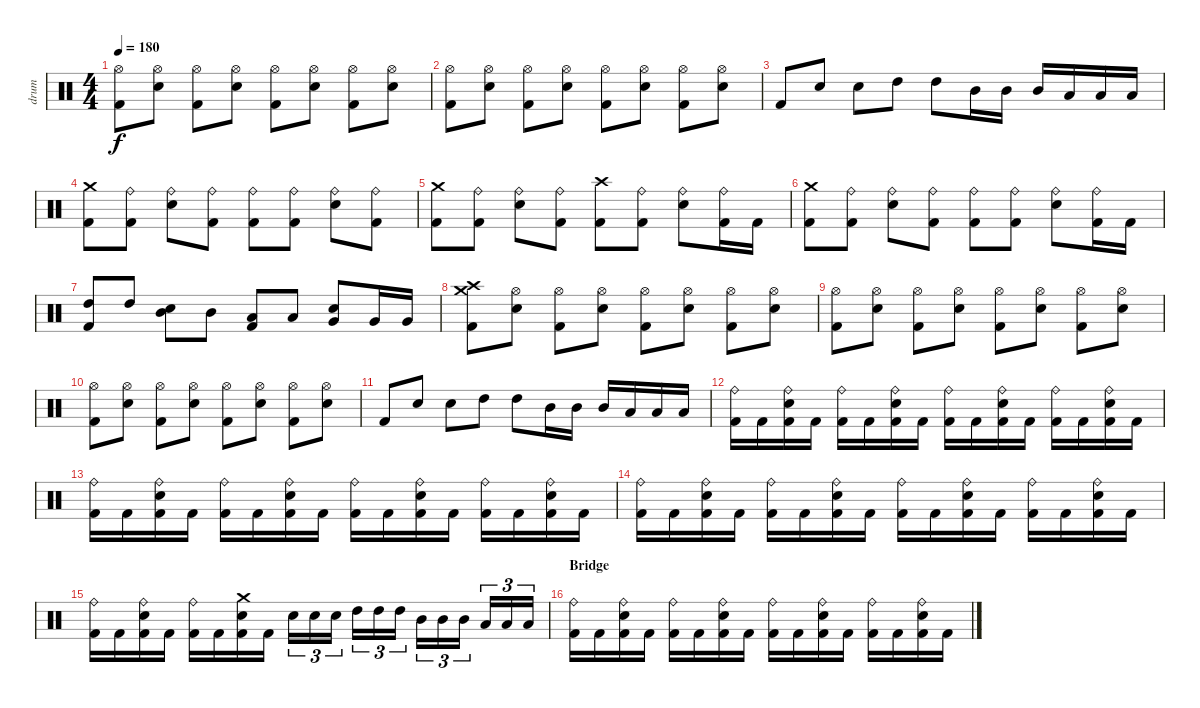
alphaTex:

\track ("drum" "drum") {instrument percussion}
\staff {score}
\articulation defaults
\ts (4 4)
\tempo 180
\clef neutral
\ks c
("Hi-Hat (open)" "Kick (hit) 2").8{dy f} ("Hi-Hat (open)" "Electric Snare (hit)").8 ("Hi-Hat (open)" "Kick (hit) 2").8 ("Hi-Hat (open)" "Electric Snare (hit)").8 ("Hi-Hat (open)" "Kick (hit) 2").8 ("Hi-Hat (open)" "Electric Snare (hit)").8 ("Hi-Hat (open)" "Kick (hit) 2").8 ("Hi-Hat (open)" "Electric Snare (hit)").8 |
("Hi-Hat (open)" "Kick (hit) 2").8 ("Hi-Hat (open)" "Electric Snare (hit)").8 ("Hi-Hat (open)" "Kick (hit) 2").8 ("Hi-Hat (open)" "Electric Snare (hit)").8 ("Hi-Hat (open)" "Kick (hit) 2").8 ("Hi-Hat (open)" "Electric Snare (hit)").8 ("Hi-Hat (open)" "Kick (hit) 2").8 ("Hi-Hat (open)" "Electric Snare (hit)").8 |
"Kick (hit) 2".8 "Electric Snare (hit)".8 "Electric Snare (hit)".8 "High Tom (hit)".8 "High Tom (hit)".8 "Mid Tom (hit)".16 "Mid Tom (hit)".16 "Mid Tom (hit)".16 "Low Tom (hit)".16 "Low Tom (hit)".16 "Low Tom (hit)".16 |
("Crash medium (hit)" "Kick (hit) 2").8 ("Ride (bell)" "Kick (hit) 2").8 ("Ride (bell)" "Electric Snare (hit)").8 ("Ride (bell)" "Kick (hit) 2").8 ("Ride (bell)" "Kick (hit) 2").8 ("Ride (bell)" "Kick (hit) 2").8 ("Ride (bell)" "Electric Snare (hit)").8 ("Ride (bell)" "Kick (hit) 2").8 |
("Crash medium (hit)" "Kick (hit) 2").8 ("Ride (bell)" "Kick (hit) 2").8 ("Ride (bell)" "Electric Snare (hit)").8 ("Ride (bell)" "Kick (hit) 2").8 ("Crash high (hit)" "Kick (hit) 2").8 ("Ride (bell)" "Kick (hit) 2").8 ("Ride (bell)" "Electric Snare (hit)").8 ("Ride (bell)" "Kick (hit) 2").16 "Kick (hit) 2".16 |
("Crash medium (hit)" "Kick (hit) 2").8 ("Ride (bell)" "Kick (hit) 2").8 ("Ride (bell)" "Electric Snare (hit)").8 ("Ride (bell)" "Kick (hit) 2").8 ("Ride (bell)" "Kick (hit) 2").8 ("Ride (bell)" "Kick (hit) 2").8 ("Ride (bell)" "Electric Snare (hit)").8 ("Ride (bell)" "Kick (hit) 2").16 "Kick (hit) 2".16 |
("High Tom (hit)" "Kick (hit) 2").8 "High Tom (hit)".8 ("Mid Tom (hit)" "Electric Snare (hit)").8 "Mid Tom (hit)".8 ("Low Tom (hit)" "Kick (hit) 2").8 "Low Tom (hit)".8 ("Very Low Tom (hit)" "Electric Snare (hit)").8 "Very Low Tom (hit)".16 "Very Low Tom (hit)".16 |
("Crash high (hit)" "Crash medium (hit)" "Kick (hit) 2").8 ("Hi-Hat (open)" "Electric Snare (hit)").8 ("Hi-Hat (open)" "Kick (hit) 2").8 ("Hi-Hat (open)" "Electric Snare (hit)").8 ("Hi-Hat (open)" "Kick (hit) 2").8 ("Hi-Hat (open)" "Electric Snare (hit)").8 ("Hi-Hat (open)" "Kick (hit) 2").8 ("Hi-Hat (open)" "Electric Snare (hit)").8 |
("Hi-Hat (open)" "Kick (hit) 2").8 ("Hi-Hat (open)" "Electric Snare (hit)").8 ("Hi-Hat (open)" "Kick (hit) 2").8 ("Hi-Hat (open)" "Electric Snare (hit)").8 ("Hi-Hat (open)" "Kick (hit) 2").8 ("Hi-Hat (open)" "Electric Snare (hit)").8 ("Hi-Hat (open)" "Kick (hit) 2").8 ("Hi-Hat (open)" "Electric Snare (hit)").8 |
("Hi-Hat (open)" "Kick (hit) 2").8 ("Hi-Hat (open)" "Electric Snare (hit)").8 ("Hi-Hat (open)" "Kick (hit) 2").8 ("Hi-Hat (open)" "Electric Snare (hit)").8 ("Hi-Hat (open)" "Kick (hit) 2").8 ("Hi-Hat (open)" "Electric Snare (hit)").8 ("Hi-Hat (open)" "Kick (hit) 2").8 ("Hi-Hat (open)" "Electric Snare (hit)").8 |
"Kick (hit) 2".8 "Electric Snare (hit)".8 "Electric Snare (hit)".8 "High Tom (hit)".8 "High Tom (hit)".8 "Mid Tom (hit)".16 "Mid Tom (hit)".16 "Mid Tom (hit)".16 "Low Tom (hit)".16 "Low Tom (hit)".16 "Low Tom (hit)".16 |
("Ride (bell)" "Kick (hit) 2").16 "Kick (hit) 2".16 ("Ride (bell)" "Electric Snare (hit)" "Kick (hit) 2").16 "Kick (hit) 2".16 ("Ride (bell)" "Kick (hit) 2").16 "Kick (hit) 2".16 ("Ride (bell)" "Electric Snare (hit)" "Kick (hit) 2").16 "Kick (hit) 2".16 ("Ride (bell)" "Kick (hit) 2").16 "Kick (hit) 2".16 ("Ride (bell)" "Electric Snare (hit)" "Kick (hit) 2").16 "Kick (hit) 2".16 ("Ride (bell)" "Kick (hit) 2").16 "Kick (hit) 2".16 ("Ride (bell)" "Electric Snare (hit)" "Kick (hit) 2").16 "Kick (hit) 2".16 |
("Ride (bell)" "Kick (hit) 2").16 "Kick (hit) 2".16 ("Ride (bell)" "Electric Snare (hit)" "Kick (hit) 2").16 "Kick (hit) 2".16 ("Ride (bell)" "Kick (hit) 2").16 "Kick (hit) 2".16 ("Ride (bell)" "Electric Snare (hit)" "Kick (hit) 2").16 "Kick (hit) 2".16 ("Ride (bell)" "Kick (hit) 2").16 "Kick (hit) 2".16 ("Ride (bell)" "Electric Snare (hit)" "Kick (hit) 2").16 "Kick (hit) 2".16 ("Ride (bell)" "Kick (hit) 2").16 "Kick (hit) 2".16 ("Ride (bell)" "Electric Snare (hit)" "Kick (hit) 2").16 "Kick (hit) 2".16 |
("Ride (bell)" "Kick (hit) 2").16 "Kick (hit) 2".16 ("Ride (bell)" "Electric Snare (hit)" "Kick (hit) 2").16 "Kick (hit) 2".16 ("Ride (bell)" "Kick (hit) 2").16 "Kick (hit) 2".16 ("Ride (bell)" "Electric Snare (hit)" "Kick (hit) 2").16 "Kick (hit) 2".16 ("Ride (bell)" "Kick (hit) 2").16 "Kick (hit) 2".16 ("Ride (bell)" "Electric Snare (hit)" "Kick (hit) 2").16 "Kick (hit) 2".16 ("Ride (bell)" "Kick (hit) 2").16 "Kick (hit) 2".16 ("Ride (bell)" "Electric Snare (hit)" "Kick (hit) 2").16 "Kick (hit) 2".16 |
("Ride (bell)" "Kick (hit) 2").16 "Kick (hit) 2".16 ("Ride (bell)" "Electric Snare (hit)" "Kick (hit) 2").16 "Kick (hit) 2".16 ("Ride (bell)" "Kick (hit) 2").16 "Kick (hit) 2".16 ("Crash medium (hit)" "Electric Snare (hit)" "Kick (hit) 2").16 "Kick (hit) 2".16 "Electric Snare (hit)".16{tu (3 2)} "Electric Snare (hit)".16{tu (3 2)} "Electric Snare (hit)".16{tu (3 2)} "High Tom (hit)".16{tu (3 2)} "High Tom (hit)".16{tu (3 2)} "High Tom (hit)".16{tu (3 2)} "Mid Tom (hit)".16{tu (3 2)} "Mid Tom (hit)".16{tu (3 2)} "Mid Tom (hit)".16{tu (3 2)} "Low Tom (hit)".16{tu (3 2)} "Low Tom (hit)".16{tu (3 2)} "Low Tom (hit)".16{tu (3 2)} |
\section ("" "Bridge")
("Ride (bell)" "Kick (hit) 2").16 "Kick (hit) 2".16 ("Ride (bell)" "Electric Snare (hit)" "Kick (hit) 2").16 "Kick (hit) 2".16 ("Ride (bell)" "Kick (hit) 2").16 "Kick (hit) 2".16 ("Ride (bell)" "Electric Snare (hit)" "Kick (hit) 2").16 "Kick (hit) 2".16 ("Ride (bell)" "Kick (hit) 2").16 "Kick (hit) 2".16 ("Ride (bell)" "Electric Snare (hit)" "Kick (hit) 2").16 "Kick (hit) 2".16 ("Ride (bell)" "Kick (hit) 2").16 "Kick (hit) 2".16 ("Ride (bell)" "Electric Snare (hit)" "Kick (hit) 2").16 "Kick (hit) 2".16
